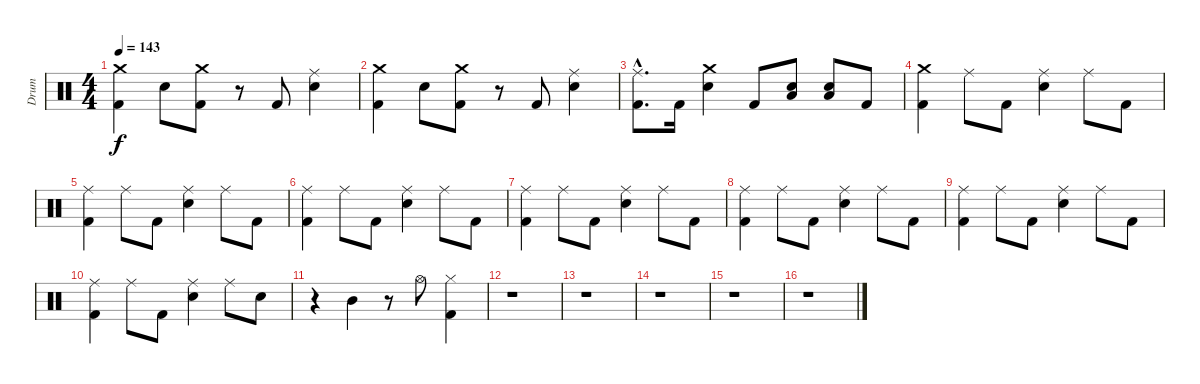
\track ("Drum" "Drum") {instrument percussion}
\staff {score}
\articulation defaults
\ts (4 4)
\tempo 143
\clef neutral
\ks c
("Crash medium (hit)" "Kick (hit) 2").4{dy f} "Snare (hit) 2".8 ("Crash medium (hit)" "Kick (hit) 2").8 r.8 "Kick (hit) 2".8 ("Ride (middle)" "Snare (hit) 2").4 |
("Crash medium (hit)" "Kick (hit) 2").4 "Snare (hit) 2".8 ("Crash medium (hit)" "Kick (hit) 2").8 r.8 "Kick (hit) 2".8 ("Ride (middle)" "Snare (hit) 2").4 |
("Ride (middle)"{hac} "Kick (hit) 2"{hac}).8{d} "Kick (hit) 2".16 ("Crash medium (hit)" "Snare (hit) 2").4 "Kick (hit) 2".8 ("Snare (hit) 2" "Low Floor Tom (hit)").8 ("Snare (hit) 2" "Low Floor Tom (hit)").8 "Kick (hit) 2".8 |
("Crash medium (hit)" "Kick (hit) 2").4 "Ride (middle)".8 "Kick (hit) 2".8 ("Ride (middle)" "Snare (hit) 2").4 "Ride (middle)".8 "Kick (hit) 2".8 |
("Ride (middle)" "Kick (hit) 2").4 "Ride (middle)".8 "Kick (hit) 2".8 ("Ride (middle)" "Snare (hit) 2").4 "Ride (middle)".8 "Kick (hit) 2".8 |
("Ride (middle)" "Kick (hit) 2").4 "Ride (middle)".8 "Kick (hit) 2".8 ("Ride (middle)" "Snare (hit) 2").4 "Ride (middle)".8 "Kick (hit) 2".8 |
("Ride (middle)" "Kick (hit) 2").4 "Ride (middle)".8 "Kick (hit) 2".8 ("Ride (middle)" "Snare (hit) 2").4 "Ride (middle)".8 "Kick (hit) 2".8 |
("Ride (middle)" "Kick (hit) 2").4 "Ride (middle)".8 "Kick (hit) 2".8 ("Ride (middle)" "Snare (hit) 2").4 "Ride (middle)".8 "Kick (hit) 2".8 |
("Ride (middle)" "Kick (hit) 2").4 "Ride (middle)".8 "Kick (hit) 2".8 ("Ride (middle)" "Snare (hit) 2").4 "Ride (middle)".8 "Kick (hit) 2".8 |
("Ride (middle)" "Kick (hit) 2").4 "Ride (middle)".8 "Kick (hit) 2".8 ("Ride (middle)" "Snare (hit) 2").4 "Ride (middle)".8 "Snare (hit) 2".8 |
r.4 "Mid Tom (hit)".4 r.8 "Hi-Hat (open)".8 ("Hi-Hat (closed)" "Kick (hit) 2").4 |
r.1 |
r.1 |
r.1 |
r.1 |
r.1
